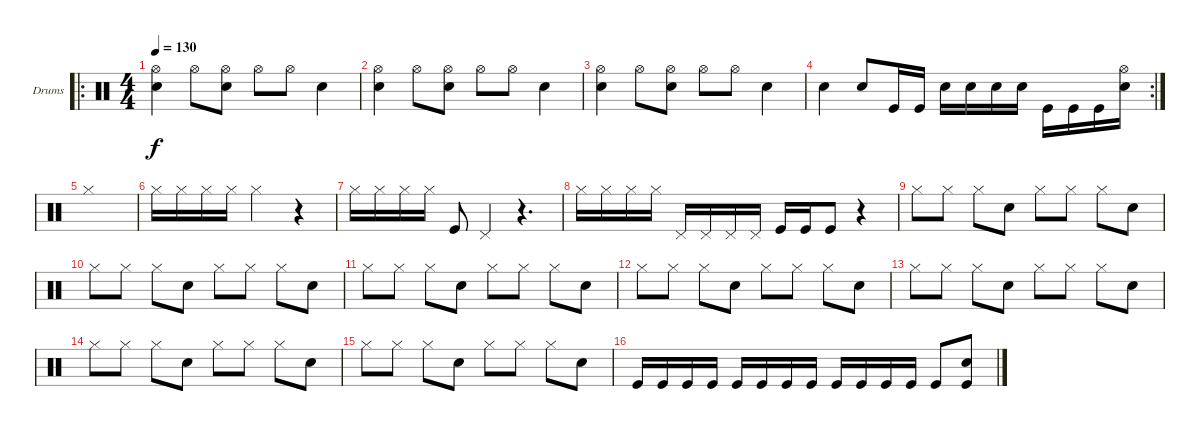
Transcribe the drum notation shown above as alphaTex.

\defaultSystemsLayout 4
\bracketExtendMode groupsimilarinstruments
\firstSystemTrackNameOrientation horizontal
\otherSystemsTrackNameOrientation horizontal
\track ("Drumkit" "Drums") {instrument percussion}
\staff {score}
\articulation defaults
\ro
\ts (4 4)
\tempo 130
\clef neutral
\ks c
("Snare (hit) 2" "Hi-Hat (open)").4{dy f} "Hi-Hat (open)".8 ("Hi-Hat (open)" "Snare (hit) 2").8 "Hi-Hat (open)".8 "Hi-Hat (open)".8 "Snare (hit) 2".4 |
("Snare (hit) 2" "Hi-Hat (open)").4 "Hi-Hat (open)".8 ("Hi-Hat (open)" "Snare (hit) 2").8 "Hi-Hat (open)".8 "Hi-Hat (open)".8 "Snare (hit) 2".4 |
("Snare (hit) 2" "Hi-Hat (open)").4 "Hi-Hat (open)".8 ("Hi-Hat (open)" "Snare (hit) 2").8 "Hi-Hat (open)".8 "Hi-Hat (open)".8 "Snare (hit) 2".4 |
\rc 2 "Snare (hit) 2".4 "Snare (hit) 2".8 "Kick (hit)".16 "Kick (hit)".16 "Snare (hit) 2".16 "Snare (hit) 2".16 "Snare (hit) 2".16 "Snare (hit) 2".16 "Kick (hit)".16 "Kick (hit)".16 "Kick (hit)".16
("Snare (hit) 2" "Hi-Hat (open)").16 |
"Hi-Hat (closed)".1 |
"Hi-Hat (closed)".16 "Hi-Hat (closed)".16 "Hi-Hat (closed)".16 "Hi-Hat (closed)".16 "Hi-Hat (closed)".2 r.4 |
"Hi-Hat (closed)".16 "Hi-Hat (closed)".16 "Hi-Hat (closed)".16 "Hi-Hat (closed)".16 "Kick (hit)".8 "Pedal Hi-Hat (hit)".4 r.4{d} |
"Hi-Hat (closed)".16 "Hi-Hat (closed)".16 "Hi-Hat (closed)".16 "Hi-Hat (closed)".16 "Pedal Hi-Hat (hit)".16 "Pedal Hi-Hat (hit)".16 "Pedal Hi-Hat (hit)".16 "Pedal Hi-Hat (hit)".16 "Kick (hit)".16 "Kick (hit)".16 "Kick (hit)".8 r.4 |
"Hi-Hat (closed)".8 "Hi-Hat (closed)".8 "Hi-Hat (closed)".8 "Snare (hit) 2".8 "Hi-Hat (closed)".8 "Hi-Hat (closed)".8 "Hi-Hat (closed)".8 "Snare (hit) 2".8 |
"Hi-Hat (closed)".8 "Hi-Hat (closed)".8 "Hi-Hat (closed)".8 "Snare (hit) 2".8 "Hi-Hat (closed)".8 "Hi-Hat (closed)".8 "Hi-Hat (closed)".8 "Snare (hit) 2".8 |
"Hi-Hat (closed)".8 "Hi-Hat (closed)".8 "Hi-Hat (closed)".8 "Snare (hit) 2".8 "Hi-Hat (closed)".8 "Hi-Hat (closed)".8 "Hi-Hat (closed)".8 "Snare (hit) 2".8 |
"Hi-Hat (closed)".8 "Hi-Hat (closed)".8 "Hi-Hat (closed)".8 "Snare (hit) 2".8 "Hi-Hat (closed)".8 "Hi-Hat (closed)".8 "Hi-Hat (closed)".8 "Snare (hit) 2".8 |
"Hi-Hat (closed)".8 "Hi-Hat (closed)".8 "Hi-Hat (closed)".8 "Snare (hit) 2".8 "Hi-Hat (closed)".8 "Hi-Hat (closed)".8 "Hi-Hat (closed)".8 "Snare (hit) 2".8 |
"Hi-Hat (closed)".8 "Hi-Hat (closed)".8 "Hi-Hat (closed)".8 "Snare (hit) 2".8 "Hi-Hat (closed)".8 "Hi-Hat (closed)".8 "Hi-Hat (closed)".8 "Snare (hit) 2".8 |
"Hi-Hat (closed)".8 "Hi-Hat (closed)".8 "Hi-Hat (closed)".8 "Snare (hit) 2".8 "Hi-Hat (closed)".8 "Hi-Hat (closed)".8 "Hi-Hat (closed)".8 "Snare (hit) 2".8 |
"Kick (hit)".16 "Kick (hit)".16 "Kick (hit)".16 "Kick (hit)".16 "Kick (hit)".16 "Kick (hit)".16 "Kick (hit)".16 "Kick (hit)".16 "Kick (hit)".16 "Kick (hit)".16 "Kick (hit)".16 "Kick (hit)".16 "Kick (hit)".8 ("Snare (hit) 2" "Kick (hit)").8
